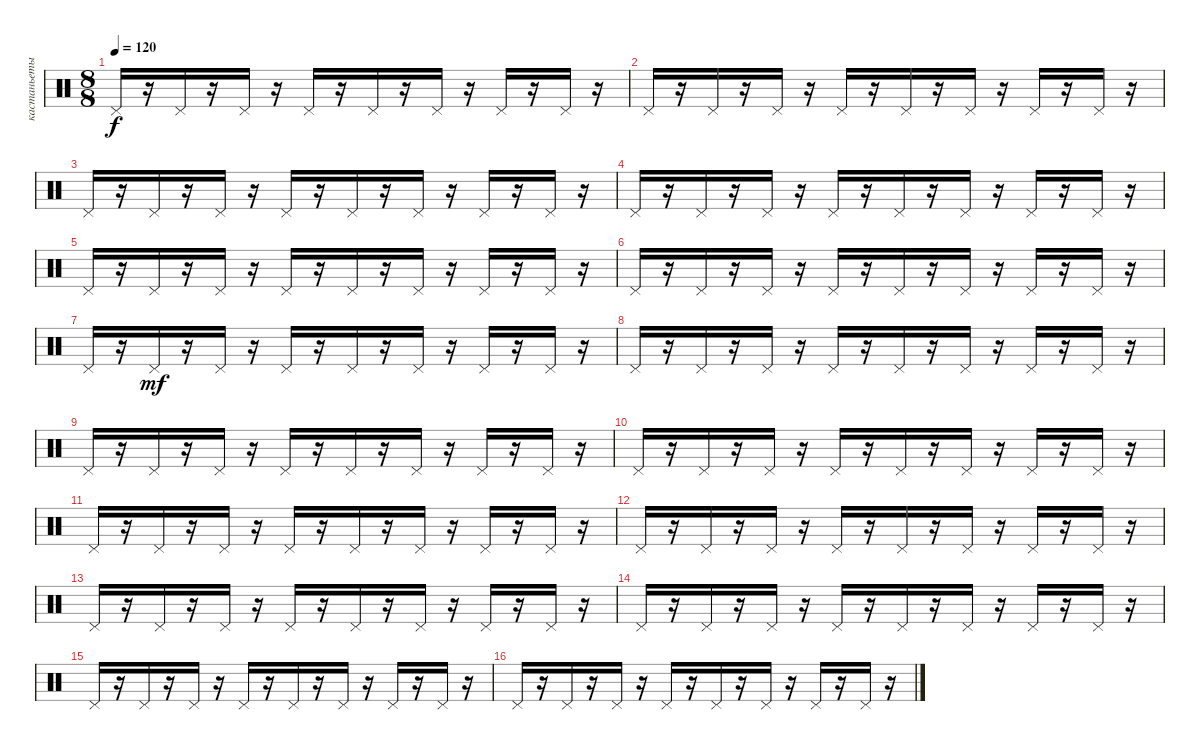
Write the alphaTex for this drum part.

\track ("кастаньеты" "кастаньеты") {instrument percussion}
\staff {score}
\articulation defaults
\ts (8 8)
\tempo 120
\clef neutral
\ks c "Pedal Hi-Hat (hit)".16{dy f}
r.16 "Pedal Hi-Hat (hit)".16 r.16 "Pedal Hi-Hat (hit)".16 r.16 "Pedal Hi-Hat (hit)".16 r.16 "Pedal Hi-Hat (hit)".16 r.16 "Pedal Hi-Hat (hit)".16 r.16 "Pedal Hi-Hat (hit)".16 r.16 "Pedal Hi-Hat (hit)".16 r.16 |
"Pedal Hi-Hat (hit)".16 r.16 "Pedal Hi-Hat (hit)".16 r.16 "Pedal Hi-Hat (hit)".16 r.16 "Pedal Hi-Hat (hit)".16 r.16 "Pedal Hi-Hat (hit)".16 r.16 "Pedal Hi-Hat (hit)".16 r.16 "Pedal Hi-Hat (hit)".16 r.16 "Pedal Hi-Hat (hit)".16 r.16 |
"Pedal Hi-Hat (hit)".16 r.16 "Pedal Hi-Hat (hit)".16 r.16 "Pedal Hi-Hat (hit)".16 r.16 "Pedal Hi-Hat (hit)".16 r.16 "Pedal Hi-Hat (hit)".16 r.16 "Pedal Hi-Hat (hit)".16 r.16 "Pedal Hi-Hat (hit)".16 r.16 "Pedal Hi-Hat (hit)".16 r.16 |
"Pedal Hi-Hat (hit)".16 r.16 "Pedal Hi-Hat (hit)".16 r.16 "Pedal Hi-Hat (hit)".16 r.16 "Pedal Hi-Hat (hit)".16 r.16 "Pedal Hi-Hat (hit)".16 r.16 "Pedal Hi-Hat (hit)".16 r.16 "Pedal Hi-Hat (hit)".16 r.16 "Pedal Hi-Hat (hit)".16 r.16 |
"Pedal Hi-Hat (hit)".16 r.16 "Pedal Hi-Hat (hit)".16 r.16 "Pedal Hi-Hat (hit)".16 r.16 "Pedal Hi-Hat (hit)".16 r.16 "Pedal Hi-Hat (hit)".16 r.16 "Pedal Hi-Hat (hit)".16 r.16 "Pedal Hi-Hat (hit)".16 r.16 "Pedal Hi-Hat (hit)".16 r.16 |
"Pedal Hi-Hat (hit)".16 r.16 "Pedal Hi-Hat (hit)".16 r.16 "Pedal Hi-Hat (hit)".16 r.16 "Pedal Hi-Hat (hit)".16 r.16 "Pedal Hi-Hat (hit)".16 r.16 "Pedal Hi-Hat (hit)".16 r.16 "Pedal Hi-Hat (hit)".16 r.16 "Pedal Hi-Hat (hit)".16 r.16 |
"Pedal Hi-Hat (hit)".16 r.16 "Pedal Hi-Hat (hit)".16{dy mf} r.16 "Pedal Hi-Hat (hit)".16 r.16 "Pedal Hi-Hat (hit)".16 r.16 "Pedal Hi-Hat (hit)".16 r.16 "Pedal Hi-Hat (hit)".16 r.16 "Pedal Hi-Hat (hit)".16 r.16 "Pedal Hi-Hat (hit)".16 r.16 |
"Pedal Hi-Hat (hit)".16 r.16 "Pedal Hi-Hat (hit)".16 r.16 "Pedal Hi-Hat (hit)".16 r.16 "Pedal Hi-Hat (hit)".16 r.16 "Pedal Hi-Hat (hit)".16 r.16 "Pedal Hi-Hat (hit)".16 r.16 "Pedal Hi-Hat (hit)".16 r.16 "Pedal Hi-Hat (hit)".16 r.16 |
"Pedal Hi-Hat (hit)".16 r.16 "Pedal Hi-Hat (hit)".16 r.16 "Pedal Hi-Hat (hit)".16 r.16 "Pedal Hi-Hat (hit)".16 r.16 "Pedal Hi-Hat (hit)".16 r.16 "Pedal Hi-Hat (hit)".16 r.16 "Pedal Hi-Hat (hit)".16 r.16 "Pedal Hi-Hat (hit)".16 r.16 |
"Pedal Hi-Hat (hit)".16 r.16 "Pedal Hi-Hat (hit)".16 r.16 "Pedal Hi-Hat (hit)".16 r.16 "Pedal Hi-Hat (hit)".16 r.16 "Pedal Hi-Hat (hit)".16 r.16 "Pedal Hi-Hat (hit)".16 r.16 "Pedal Hi-Hat (hit)".16 r.16 "Pedal Hi-Hat (hit)".16 r.16 |
"Pedal Hi-Hat (hit)".16 r.16 "Pedal Hi-Hat (hit)".16 r.16 "Pedal Hi-Hat (hit)".16 r.16 "Pedal Hi-Hat (hit)".16 r.16 "Pedal Hi-Hat (hit)".16 r.16 "Pedal Hi-Hat (hit)".16 r.16 "Pedal Hi-Hat (hit)".16 r.16 "Pedal Hi-Hat (hit)".16 r.16 |
"Pedal Hi-Hat (hit)".16 r.16 "Pedal Hi-Hat (hit)".16 r.16 "Pedal Hi-Hat (hit)".16 r.16 "Pedal Hi-Hat (hit)".16 r.16 "Pedal Hi-Hat (hit)".16 r.16 "Pedal Hi-Hat (hit)".16 r.16 "Pedal Hi-Hat (hit)".16 r.16 "Pedal Hi-Hat (hit)".16 r.16 |
"Pedal Hi-Hat (hit)".16 r.16 "Pedal Hi-Hat (hit)".16 r.16 "Pedal Hi-Hat (hit)".16 r.16 "Pedal Hi-Hat (hit)".16 r.16 "Pedal Hi-Hat (hit)".16 r.16 "Pedal Hi-Hat (hit)".16 r.16 "Pedal Hi-Hat (hit)".16 r.16 "Pedal Hi-Hat (hit)".16 r.16 |
"Pedal Hi-Hat (hit)".16 r.16 "Pedal Hi-Hat (hit)".16 r.16 "Pedal Hi-Hat (hit)".16 r.16 "Pedal Hi-Hat (hit)".16 r.16 "Pedal Hi-Hat (hit)".16 r.16 "Pedal Hi-Hat (hit)".16 r.16 "Pedal Hi-Hat (hit)".16 r.16 "Pedal Hi-Hat (hit)".16 r.16 |
"Pedal Hi-Hat (hit)".16 r.16 "Pedal Hi-Hat (hit)".16 r.16 "Pedal Hi-Hat (hit)".16 r.16 "Pedal Hi-Hat (hit)".16 r.16 "Pedal Hi-Hat (hit)".16 r.16 "Pedal Hi-Hat (hit)".16 r.16 "Pedal Hi-Hat (hit)".16 r.16 "Pedal Hi-Hat (hit)".16 r.16 |
"Pedal Hi-Hat (hit)".16 r.16 "Pedal Hi-Hat (hit)".16 r.16 "Pedal Hi-Hat (hit)".16 r.16 "Pedal Hi-Hat (hit)".16 r.16 "Pedal Hi-Hat (hit)".16 r.16 "Pedal Hi-Hat (hit)".16 r.16 "Pedal Hi-Hat (hit)".16 r.16 "Pedal Hi-Hat (hit)".16 r.16
